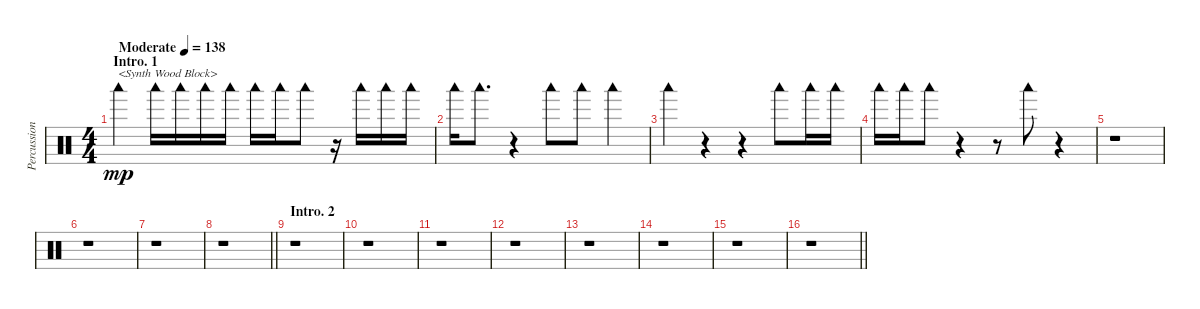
\track ("Percussion" "Percussion") {instrument percussion}
\staff {score}
\articulation defaults
\ts (4 4)
\section ("" "Intro. 1")
\tempo (138 "Moderate")
\clef neutral
\ks c "Woodblock low (hit)".4{txt "<Synth Wood Block>" dy mp} "Woodblock low (hit)".16 "Woodblock low (hit)".16 "Woodblock low (hit)".16 "Woodblock low (hit)".16 "Woodblock low (hit)".16 "Woodblock low (hit)".16 "Woodblock low (hit)".8
r.16 "Woodblock low (hit)".16 "Woodblock low (hit)".16 "Woodblock low (hit)".16 |
"Woodblock low (hit)".16 "Woodblock low (hit)".8{d} r.4 "Woodblock low (hit)".8 "Woodblock low (hit)".8 "Woodblock low (hit)".4 |
"Woodblock low (hit)".4 r.4 r.4 "Woodblock low (hit)".8 "Woodblock low (hit)".16 "Woodblock low (hit)".16 |
"Woodblock low (hit)".16 "Woodblock low (hit)".16 "Woodblock low (hit)".8 r.4 r.8 "Woodblock low (hit)".8 r.4 |
r.1 |
r.1 |
r.1 |
\barLineRight lightlight
r.1 |
\section ("" "Intro. 2")
r.1 |
r.1 |
r.1 |
r.1 |
r.1 |
r.1 |
r.1 |
\barLineRight lightlight
r.1
